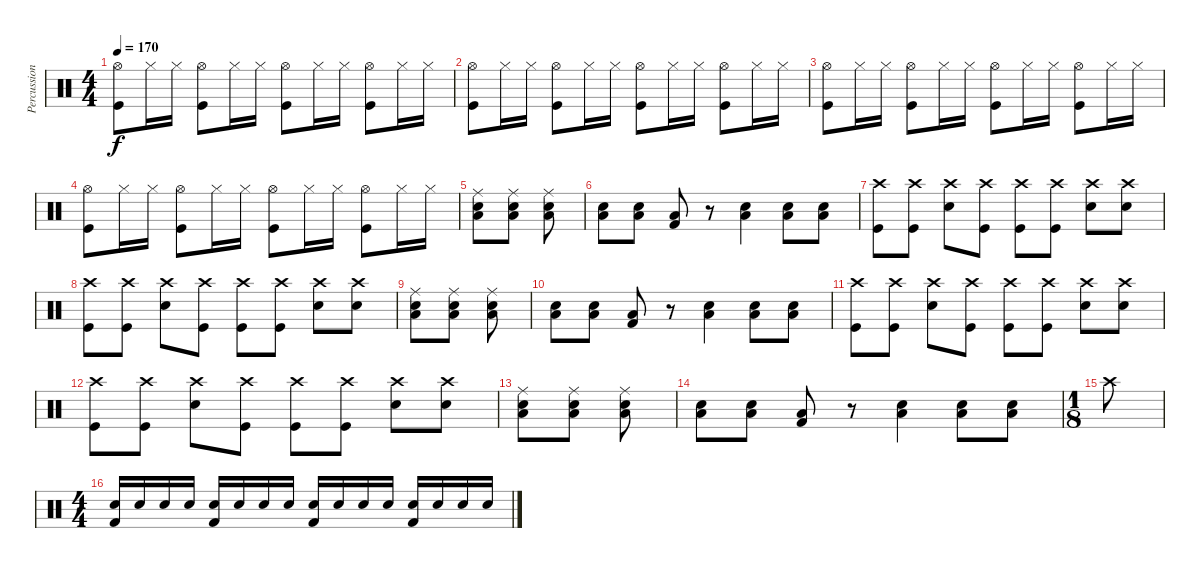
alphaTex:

\track ("Percussion" "Percussion") {instrument percussion}
\staff {score}
\articulation defaults
\ts (4 4)
\tempo 170
\clef neutral
\ks c
("Hi-Hat (open)" "Kick (hit)").8{dy f} "Hi-Hat (closed)".16 "Hi-Hat (closed)".16 ("Hi-Hat (open)" "Kick (hit)").8 "Hi-Hat (closed)".16 "Hi-Hat (closed)".16 ("Hi-Hat (open)" "Kick (hit)").8 "Hi-Hat (closed)".16 "Hi-Hat (closed)".16 ("Hi-Hat (open)" "Kick (hit)").8 "Hi-Hat (closed)".16 "Hi-Hat (closed)".16 |
("Hi-Hat (open)" "Kick (hit)").8 "Hi-Hat (closed)".16 "Hi-Hat (closed)".16 ("Hi-Hat (open)" "Kick (hit)").8 "Hi-Hat (closed)".16 "Hi-Hat (closed)".16 ("Hi-Hat (open)" "Kick (hit)").8 "Hi-Hat (closed)".16 "Hi-Hat (closed)".16 ("Hi-Hat (open)" "Kick (hit)").8 "Hi-Hat (closed)".16 "Hi-Hat (closed)".16 |
("Hi-Hat (open)" "Kick (hit)").8 "Hi-Hat (closed)".16 "Hi-Hat (closed)".16 ("Hi-Hat (open)" "Kick (hit)").8 "Hi-Hat (closed)".16 "Hi-Hat (closed)".16 ("Hi-Hat (open)" "Kick (hit)").8 "Hi-Hat (closed)".16 "Hi-Hat (closed)".16 ("Hi-Hat (open)" "Kick (hit)").8 "Hi-Hat (closed)".16 "Hi-Hat (closed)".16 |
("Hi-Hat (open)" "Kick (hit)").8 "Hi-Hat (closed)".16 "Hi-Hat (closed)".16 ("Hi-Hat (open)" "Kick (hit)").8 "Hi-Hat (closed)".16 "Hi-Hat (closed)".16 ("Hi-Hat (open)" "Kick (hit)").8 "Hi-Hat (closed)".16 "Hi-Hat (closed)".16 ("Hi-Hat (open)" "Kick (hit)").8 "Hi-Hat (closed)".16 "Hi-Hat (closed)".16 |
("Ride (middle)" "Low Floor Tom (hit)" "Electric Snare (hit)").8 ("Ride (middle)" "Low Floor Tom (hit)" "Electric Snare (hit)").8 ("Ride (middle)" "Low Floor Tom (hit)" "Electric Snare (hit)").8 |
("Low Floor Tom (hit)" "Electric Snare (hit)").8 ("Low Floor Tom (hit)" "Electric Snare (hit)").8 ("Low Floor Tom (hit)" "Kick (hit) 2").8 r.8 ("Low Floor Tom (hit)" "Electric Snare (hit)").4 ("Low Floor Tom (hit)" "Electric Snare (hit)").8 ("Low Floor Tom (hit)" "Electric Snare (hit)").8 |
("Crash high (hit)" "Kick (hit)").8 ("Crash high (hit)" "Kick (hit)").8 ("Crash high (hit)" "Electric Snare (hit)").8 ("Crash high (hit)" "Kick (hit)").8 ("Crash high (hit)" "Kick (hit)").8 ("Crash high (hit)" "Kick (hit)").8 ("Crash high (hit)" "Electric Snare (hit)").8 ("Crash high (hit)" "Electric Snare (hit)").8 |
("Crash high (hit)" "Kick (hit)").8 ("Crash high (hit)" "Kick (hit)").8 ("Crash high (hit)" "Electric Snare (hit)").8 ("Crash high (hit)" "Kick (hit)").8 ("Crash high (hit)" "Kick (hit)").8 ("Crash high (hit)" "Kick (hit)").8 ("Crash high (hit)" "Electric Snare (hit)").8 ("Crash high (hit)" "Electric Snare (hit)").8 |
("Ride (middle)" "Low Floor Tom (hit)" "Electric Snare (hit)").8 ("Ride (middle)" "Low Floor Tom (hit)" "Electric Snare (hit)").8 ("Ride (middle)" "Low Floor Tom (hit)" "Electric Snare (hit)").8 |
("Low Floor Tom (hit)" "Electric Snare (hit)").8 ("Low Floor Tom (hit)" "Electric Snare (hit)").8 ("Low Floor Tom (hit)" "Kick (hit) 2").8 r.8 ("Low Floor Tom (hit)" "Electric Snare (hit)").4 ("Low Floor Tom (hit)" "Electric Snare (hit)").8 ("Low Floor Tom (hit)" "Electric Snare (hit)").8 |
("Crash high (hit)" "Kick (hit)").8 ("Crash high (hit)" "Kick (hit)").8 ("Crash high (hit)" "Electric Snare (hit)").8 ("Crash high (hit)" "Kick (hit)").8 ("Crash high (hit)" "Kick (hit)").8 ("Crash high (hit)" "Kick (hit)").8 ("Crash high (hit)" "Electric Snare (hit)").8 ("Crash high (hit)" "Electric Snare (hit)").8 |
("Crash high (hit)" "Kick (hit)").8 ("Crash high (hit)" "Kick (hit)").8 ("Crash high (hit)" "Electric Snare (hit)").8 ("Crash high (hit)" "Kick (hit)").8 ("Crash high (hit)" "Kick (hit)").8 ("Crash high (hit)" "Kick (hit)").8 ("Crash high (hit)" "Electric Snare (hit)").8 ("Crash high (hit)" "Electric Snare (hit)").8 |
("Ride (middle)" "Low Floor Tom (hit)" "Electric Snare (hit)").8 ("Ride (middle)" "Low Floor Tom (hit)" "Electric Snare (hit)").8 ("Ride (middle)" "Low Floor Tom (hit)" "Electric Snare (hit)").8 |
("Low Floor Tom (hit)" "Electric Snare (hit)").8 ("Low Floor Tom (hit)" "Electric Snare (hit)").8 ("Low Floor Tom (hit)" "Kick (hit) 2").8 r.8 ("Low Floor Tom (hit)" "Electric Snare (hit)").4 ("Low Floor Tom (hit)" "Electric Snare (hit)").8 ("Low Floor Tom (hit)" "Electric Snare (hit)").8 |
\ts (1 8)
"Crash high (hit)".8 |
\ts (4 4)
("Electric Snare (hit)" "Kick (hit) 2").16 "Electric Snare (hit)".16 "Electric Snare (hit)".16 "Electric Snare (hit)".16 ("Electric Snare (hit)" "Kick (hit) 2").16 "Electric Snare (hit)".16 "Electric Snare (hit)".16 "Electric Snare (hit)".16 ("Electric Snare (hit)" "Kick (hit) 2").16 "Electric Snare (hit)".16 "Electric Snare (hit)".16 "Electric Snare (hit)".16 ("Electric Snare (hit)" "Kick (hit) 2").16 "Electric Snare (hit)".16 "Electric Snare (hit)".16 "Electric Snare (hit)".16
